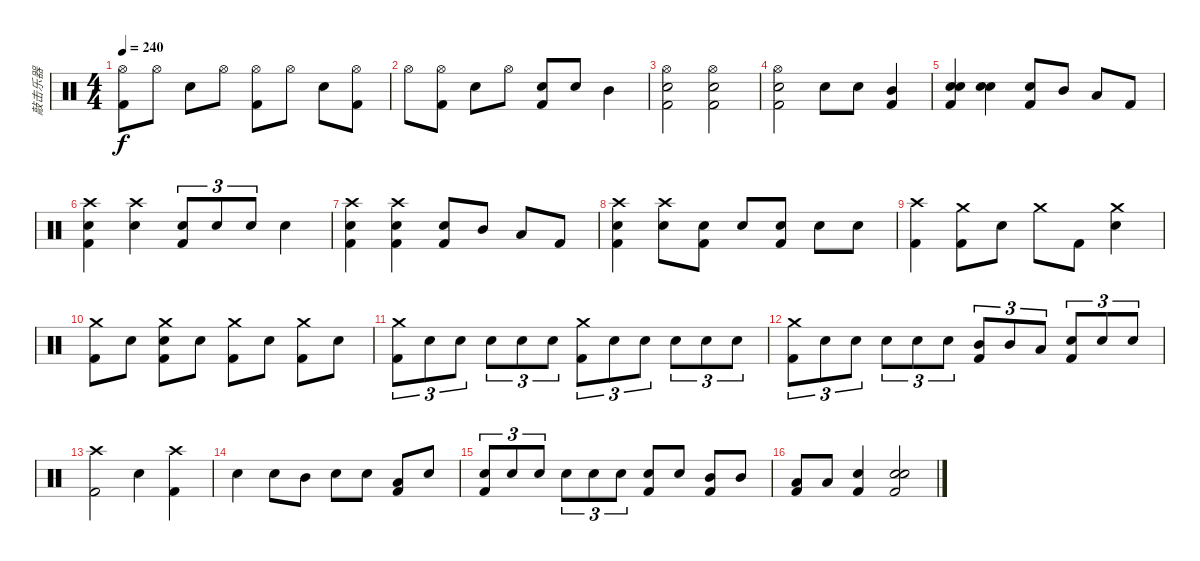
\track ("敲击乐器" "敲击乐器") {instrument percussion}
\staff {score}
\articulation defaults
\ts (4 4)
\tempo 240
\clef neutral
\ks c
("Hi-Hat (open)" "Kick (hit) 2").8{dy f} "Hi-Hat (open)".8 "Electric Snare (hit)".8 "Hi-Hat (open)".8 ("Hi-Hat (open)" "Kick (hit) 2").8 "Hi-Hat (open)".8 "Electric Snare (hit)".8 ("Hi-Hat (open)" "Kick (hit) 2").8 |
"Hi-Hat (open)".8 ("Hi-Hat (open)" "Kick (hit) 2").8 "Electric Snare (hit)".8 "Hi-Hat (open)".8 ("Electric Snare (hit)" "Kick (hit) 2").8 "Electric Snare (hit)".8 "Mid Tom (hit)".4 |
("Hi-Hat (open)" "Electric Snare (hit)" "Kick (hit) 2").2 ("Hi-Hat (open)" "Electric Snare (hit)" "Kick (hit) 2").2 |
("Hi-Hat (open)" "Electric Snare (hit)" "Kick (hit) 2").2 "Electric Snare (hit)".8 "Electric Snare (hit)".8 ("Mid Tom (hit)" "Kick (hit) 2").4 |
("Electric Snare (hit)" "Snare (hit) 2" "Kick (hit) 2").4 ("Electric Snare (hit)" "Snare (hit) 2").4 ("Electric Snare (hit)" "Kick (hit) 2").8 "Mid Tom (hit)".8 "Low Tom (hit)".8 "Kick (hit) 2".8 |
("Crash high (hit)" "Electric Snare (hit)" "Kick (hit) 2").4 ("Crash high (hit)" "Electric Snare (hit)").4 ("Electric Snare (hit)" "Kick (hit) 2").8{tu (3 2)} "Electric Snare (hit)".8{tu (3 2)} "Electric Snare (hit)".8{tu (3 2)} "Electric Snare (hit)".4 |
("Crash high (hit)" "Electric Snare (hit)" "Kick (hit) 2").4 ("Crash high (hit)" "Electric Snare (hit)" "Kick (hit) 2").4 ("Electric Snare (hit)" "Kick (hit) 2").8 "Mid Tom (hit)".8 "Low Tom (hit)".8 "Kick (hit) 2".8 |
("Crash high (hit)" "Electric Snare (hit)" "Kick (hit) 2").4 ("Crash high (hit)" "Electric Snare (hit)").8 ("Electric Snare (hit)" "Kick (hit) 2").8 "Electric Snare (hit)".8 ("Electric Snare (hit)" "Kick (hit) 2").8 "Electric Snare (hit)".8 "Electric Snare (hit)".8 |
("Crash high (hit)" "Kick (hit) 2").4 ("Crash medium (hit)" "Kick (hit) 2").8 "Electric Snare (hit)".8 "Crash medium (hit)".8 "Kick (hit) 2".8 ("Crash medium (hit)" "Electric Snare (hit)").4 |
("Crash medium (hit)" "Kick (hit) 2").8 "Electric Snare (hit)".8 ("Crash medium (hit)" "Electric Snare (hit)" "Kick (hit) 2").8 "Electric Snare (hit)".8 ("Crash medium (hit)" "Kick (hit) 2").8 "Electric Snare (hit)".8 ("Crash medium (hit)" "Kick (hit) 2").8 "Electric Snare (hit)".8 |
("Crash medium (hit)" "Kick (hit) 2").8{tu (3 2)} "Electric Snare (hit)".8{tu (3 2)} "Electric Snare (hit)".8{tu (3 2)} "Electric Snare (hit)".8{tu (3 2)} "Electric Snare (hit)".8{tu (3 2)} "Electric Snare (hit)".8{tu (3 2)} ("Crash medium (hit)" "Kick (hit) 2").8{tu (3 2)} "Electric Snare (hit)".8{tu (3 2)} "Electric Snare (hit)".8{tu (3 2)} "Electric Snare (hit)".8{tu (3 2)} "Electric Snare (hit)".8{tu (3 2)} "Electric Snare (hit)".8{tu (3 2)} |
("Crash medium (hit)" "Kick (hit) 2").8{tu (3 2)} "Electric Snare (hit)".8{tu (3 2)} "Electric Snare (hit)".8{tu (3 2)} "Electric Snare (hit)".8{tu (3 2)} "Electric Snare (hit)".8{tu (3 2)} "Electric Snare (hit)".8{tu (3 2)} ("Mid Tom (hit)" "Kick (hit) 2").8{tu (3 2)} "Mid Tom (hit)".8{tu (3 2)} "Low Tom (hit)".8{tu (3 2)} ("Snare (hit) 2" "Kick (hit) 2").8{tu (3 2)} "Snare (hit) 2".8{tu (3 2)} "Snare (hit) 2".8{tu (3 2)} |
("Crash high (hit)" "Kick (hit) 2").2 "Electric Snare (hit)".4 ("Crash high (hit)" "Kick (hit) 2").4 |
"Electric Snare (hit)".4 "Electric Snare (hit)".8 "Mid Tom (hit)".8 "Electric Snare (hit)".8 "Electric Snare (hit)".8 ("Low Tom (hit)" "Kick (hit) 2").8 "Electric Snare (hit)".8 |
("Electric Snare (hit)" "Kick (hit) 2").8{tu (3 2)} "Electric Snare (hit)".8{tu (3 2)} "Electric Snare (hit)".8{tu (3 2)} "Electric Snare (hit)".8{tu (3 2)} "Electric Snare (hit)".8{tu (3 2)} "Electric Snare (hit)".8{tu (3 2)} ("Electric Snare (hit)" "Kick (hit) 2").8 "Electric Snare (hit)".8 ("Mid Tom (hit)" "Kick (hit) 2").8 "Mid Tom (hit)".8 |
("Low Tom (hit)" "Kick (hit) 2").8 "Low Tom (hit)".8 ("Snare (hit) 2" "Kick (hit) 2").4 ("Electric Snare (hit)" "Snare (hit) 2" "Kick (hit) 2").2
